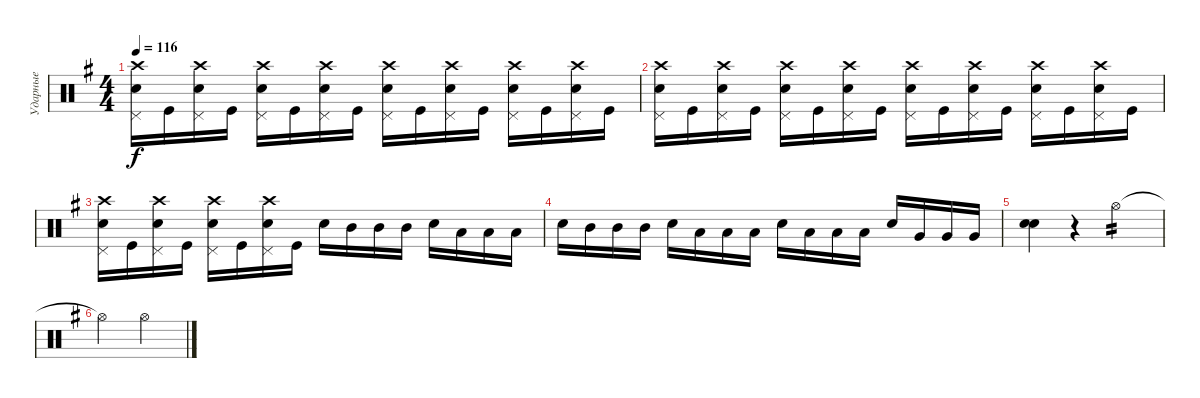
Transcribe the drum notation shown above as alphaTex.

\track ("Ударные" "Ударные") {instrument percussion}
\staff {score}
\articulation defaults
\ts (4 4)
\tempo 116
\clef neutral
\ks eminor
("Pedal Hi-Hat (hit)" "Snare (hit) 2" "Crash high (hit)").16{dy f} "Kick (hit)".16 ("Pedal Hi-Hat (hit)" "Snare (hit) 2" "Crash high (hit)").16 "Kick (hit)".16 ("Pedal Hi-Hat (hit)" "Snare (hit) 2" "Crash high (hit)").16 "Kick (hit)".16 ("Pedal Hi-Hat (hit)" "Snare (hit) 2" "Crash high (hit)").16 "Kick (hit)".16 ("Pedal Hi-Hat (hit)" "Snare (hit) 2" "Crash high (hit)").16 "Kick (hit)".16 ("Pedal Hi-Hat (hit)" "Snare (hit) 2" "Crash high (hit)").16 "Kick (hit)".16 ("Pedal Hi-Hat (hit)" "Snare (hit) 2" "Crash high (hit)").16 "Kick (hit)".16 ("Pedal Hi-Hat (hit)" "Snare (hit) 2" "Crash high (hit)").16 "Kick (hit)".16 |
("Pedal Hi-Hat (hit)" "Snare (hit) 2" "Crash high (hit)").16 "Kick (hit)".16 ("Pedal Hi-Hat (hit)" "Snare (hit) 2" "Crash high (hit)").16 "Kick (hit)".16 ("Pedal Hi-Hat (hit)" "Snare (hit) 2" "Crash high (hit)").16 "Kick (hit)".16 ("Pedal Hi-Hat (hit)" "Snare (hit) 2" "Crash high (hit)").16 "Kick (hit)".16 ("Pedal Hi-Hat (hit)" "Snare (hit) 2" "Crash high (hit)").16 "Kick (hit)".16 ("Pedal Hi-Hat (hit)" "Snare (hit) 2" "Crash high (hit)").16 "Kick (hit)".16 ("Pedal Hi-Hat (hit)" "Snare (hit) 2" "Crash high (hit)").16 "Kick (hit)".16 ("Pedal Hi-Hat (hit)" "Snare (hit) 2" "Crash high (hit)").16 "Kick (hit)".16 |
("Pedal Hi-Hat (hit)" "Snare (hit) 2" "Crash high (hit)").16 "Kick (hit)".16 ("Pedal Hi-Hat (hit)" "Snare (hit) 2" "Crash high (hit)").16 "Kick (hit)".16 ("Pedal Hi-Hat (hit)" "Snare (hit) 2" "Crash high (hit)").16 "Kick (hit)".16 ("Pedal Hi-Hat (hit)" "Snare (hit) 2" "Crash high (hit)").16 "Kick (hit)".16 "Snare (hit) 2".16 "Mid Tom (hit)".16 "Mid Tom (hit)".16 "Mid Tom (hit)".16 "Snare (hit) 2".16 "Low Tom (hit)".16 "Low Tom (hit)".16 "Low Tom (hit)".16 |
"Snare (hit) 2".16 "Mid Tom (hit)".16 "Mid Tom (hit)".16 "Mid Tom (hit)".16 "Snare (hit) 2".16 "Low Tom (hit)".16 "Low Tom (hit)".16 "Low Tom (hit)".16 "Snare (hit) 2".16 "Low Tom (hit)".16 "Low Tom (hit)".16 "Low Tom (hit)".16 "Snare (hit) 2".16 "Very Low Tom (hit)".16 "Very Low Tom (hit)".16 "Very Low Tom (hit)".16 |
("Snare (hit) 2" "Snare (hit) 2").4{bd 240} r.4 "Hi-Hat (open)".2{tp 2} |
"Hi-Hat (open)"{t}.2 "Hi-Hat (open)".2
